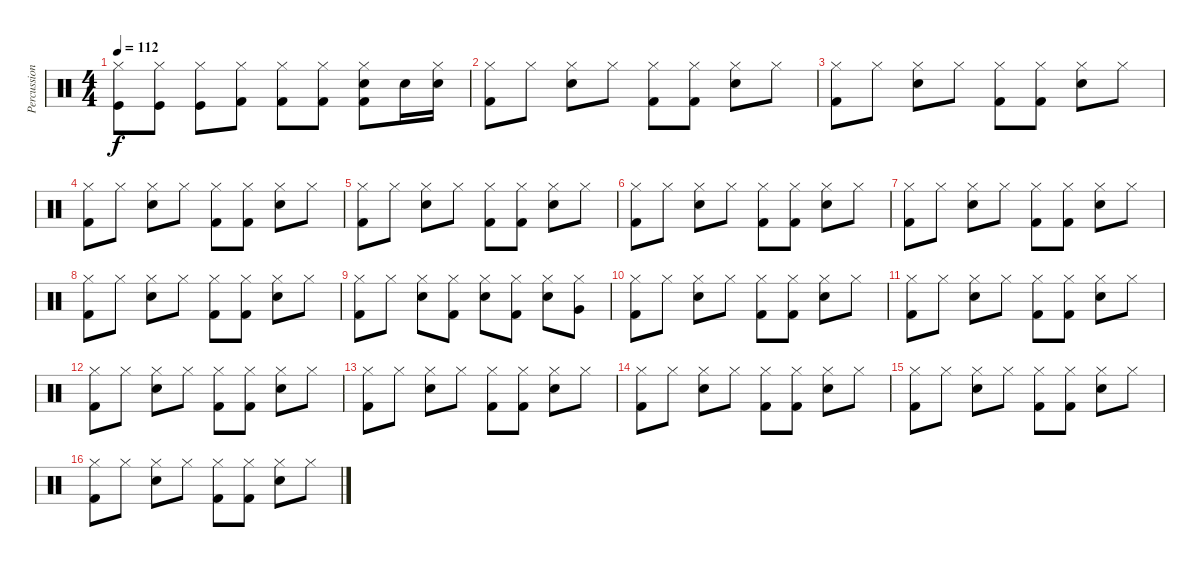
\track ("Percussion" "Percussion") {instrument percussion}
\staff {score}
\articulation defaults
\ts (4 4)
\tempo 112
\clef neutral
\ks c
("Kick (hit)" "Hi-Hat (closed)").8{dy f} ("Kick (hit)" "Hi-Hat (closed)").8 ("Kick (hit)" "Hi-Hat (closed)").8 ("Kick (hit) 2" "Hi-Hat (closed)").8 ("Kick (hit) 2" "Hi-Hat (closed)").8 ("Kick (hit) 2" "Hi-Hat (closed)").8 ("Snare (hit) 2" "Kick (hit) 2" "Hi-Hat (closed)").8 "Snare (hit) 2".16 ("Snare (hit) 2" "Hi-Hat (closed)").16 |
("Kick (hit) 2" "Hi-Hat (closed)").8 "Hi-Hat (closed)".8 ("Snare (hit) 2" "Hi-Hat (closed)").8 "Hi-Hat (closed)".8 ("Kick (hit) 2" "Hi-Hat (closed)").8 ("Kick (hit) 2" "Hi-Hat (closed)").8 ("Snare (hit) 2" "Hi-Hat (closed)").8 "Hi-Hat (closed)".8 |
("Kick (hit) 2" "Hi-Hat (closed)").8 "Hi-Hat (closed)".8 ("Snare (hit) 2" "Hi-Hat (closed)").8 "Hi-Hat (closed)".8 ("Kick (hit) 2" "Hi-Hat (closed)").8 ("Kick (hit) 2" "Hi-Hat (closed)").8 ("Snare (hit) 2" "Hi-Hat (closed)").8 "Hi-Hat (closed)".8 |
("Kick (hit) 2" "Hi-Hat (closed)").8 "Hi-Hat (closed)".8 ("Snare (hit) 2" "Hi-Hat (closed)").8 "Hi-Hat (closed)".8 ("Kick (hit) 2" "Hi-Hat (closed)").8 ("Kick (hit) 2" "Hi-Hat (closed)").8 ("Snare (hit) 2" "Hi-Hat (closed)").8 "Hi-Hat (closed)".8 |
("Kick (hit) 2" "Hi-Hat (closed)").8 "Hi-Hat (closed)".8 ("Snare (hit) 2" "Hi-Hat (closed)").8 "Hi-Hat (closed)".8 ("Kick (hit) 2" "Hi-Hat (closed)").8 ("Kick (hit) 2" "Hi-Hat (closed)").8 ("Snare (hit) 2" "Hi-Hat (closed)").8 "Hi-Hat (closed)".8 |
("Kick (hit) 2" "Hi-Hat (closed)").8 "Hi-Hat (closed)".8 ("Snare (hit) 2" "Hi-Hat (closed)").8 "Hi-Hat (closed)".8 ("Kick (hit) 2" "Hi-Hat (closed)").8 ("Kick (hit) 2" "Hi-Hat (closed)").8 ("Snare (hit) 2" "Hi-Hat (closed)").8 "Hi-Hat (closed)".8 |
("Kick (hit) 2" "Hi-Hat (closed)").8 "Hi-Hat (closed)".8 ("Snare (hit) 2" "Hi-Hat (closed)").8 "Hi-Hat (closed)".8 ("Kick (hit) 2" "Hi-Hat (closed)").8 ("Kick (hit) 2" "Hi-Hat (closed)").8 ("Snare (hit) 2" "Hi-Hat (closed)").8 "Hi-Hat (closed)".8 |
("Kick (hit) 2" "Hi-Hat (closed)").8 "Hi-Hat (closed)".8 ("Snare (hit) 2" "Hi-Hat (closed)").8 "Hi-Hat (closed)".8 ("Kick (hit) 2" "Hi-Hat (closed)").8 ("Kick (hit) 2" "Hi-Hat (closed)").8 ("Snare (hit) 2" "Hi-Hat (closed)").8 "Hi-Hat (closed)".8 |
("Kick (hit) 2" "Hi-Hat (closed)").8 "Hi-Hat (closed)".8 ("Snare (hit) 2" "Hi-Hat (closed)").8 ("Kick (hit) 2" "Hi-Hat (closed)").8 ("Snare (hit) 2" "Hi-Hat (closed)").8 ("Kick (hit) 2" "Hi-Hat (closed)").8 ("Snare (hit) 2" "Hi-Hat (closed)").8 ("Very Low Tom (hit)" "Hi-Hat (closed)").8 |
("Kick (hit) 2" "Hi-Hat (closed)").8 "Hi-Hat (closed)".8 ("Snare (hit) 2" "Hi-Hat (closed)").8 "Hi-Hat (closed)".8 ("Kick (hit) 2" "Hi-Hat (closed)").8 ("Kick (hit) 2" "Hi-Hat (closed)").8 ("Snare (hit) 2" "Hi-Hat (closed)").8 "Hi-Hat (closed)".8 |
("Kick (hit) 2" "Hi-Hat (closed)").8 "Hi-Hat (closed)".8 ("Snare (hit) 2" "Hi-Hat (closed)").8 "Hi-Hat (closed)".8 ("Kick (hit) 2" "Hi-Hat (closed)").8 ("Kick (hit) 2" "Hi-Hat (closed)").8 ("Snare (hit) 2" "Hi-Hat (closed)").8 "Hi-Hat (closed)".8 |
("Kick (hit) 2" "Hi-Hat (closed)").8 "Hi-Hat (closed)".8 ("Snare (hit) 2" "Hi-Hat (closed)").8 "Hi-Hat (closed)".8 ("Kick (hit) 2" "Hi-Hat (closed)").8 ("Kick (hit) 2" "Hi-Hat (closed)").8 ("Snare (hit) 2" "Hi-Hat (closed)").8 "Hi-Hat (closed)".8 |
("Kick (hit) 2" "Hi-Hat (closed)").8 "Hi-Hat (closed)".8 ("Snare (hit) 2" "Hi-Hat (closed)").8 "Hi-Hat (closed)".8 ("Kick (hit) 2" "Hi-Hat (closed)").8 ("Kick (hit) 2" "Hi-Hat (closed)").8 ("Snare (hit) 2" "Hi-Hat (closed)").8 "Hi-Hat (closed)".8 |
("Kick (hit) 2" "Hi-Hat (closed)").8 "Hi-Hat (closed)".8 ("Snare (hit) 2" "Hi-Hat (closed)").8 "Hi-Hat (closed)".8 ("Kick (hit) 2" "Hi-Hat (closed)").8 ("Kick (hit) 2" "Hi-Hat (closed)").8 ("Snare (hit) 2" "Hi-Hat (closed)").8 "Hi-Hat (closed)".8 |
("Kick (hit) 2" "Hi-Hat (closed)").8 "Hi-Hat (closed)".8 ("Snare (hit) 2" "Hi-Hat (closed)").8 "Hi-Hat (closed)".8 ("Kick (hit) 2" "Hi-Hat (closed)").8 ("Kick (hit) 2" "Hi-Hat (closed)").8 ("Snare (hit) 2" "Hi-Hat (closed)").8 "Hi-Hat (closed)".8 |
("Kick (hit) 2" "Hi-Hat (closed)").8 "Hi-Hat (closed)".8 ("Snare (hit) 2" "Hi-Hat (closed)").8 "Hi-Hat (closed)".8 ("Kick (hit) 2" "Hi-Hat (closed)").8 ("Kick (hit) 2" "Hi-Hat (closed)").8 ("Snare (hit) 2" "Hi-Hat (closed)").8 "Hi-Hat (closed)".8
